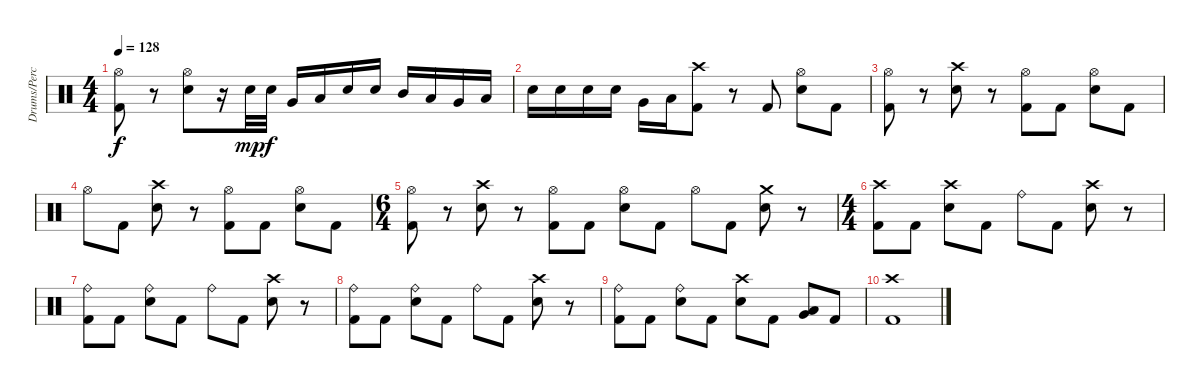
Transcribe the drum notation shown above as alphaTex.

\track ("Drums/Percussion" "Drums/Perc") {instrument percussion}
\staff {score}
\articulation defaults
\ts (4 4)
\tempo 128
\clef neutral
\ks c
("Hi-Hat (open)" "Kick (hit) 2").8{dy f} r.8 ("Hi-Hat (open)" "Electric Snare (hit)").8 r.16 "Electric Snare (hit)".32{dy mp} "Electric Snare (hit)".32{dy f} "Very Low Tom (hit)".16 "Low Floor Tom (hit)".16 "Electric Snare (hit)".16 "Electric Snare (hit)".16 "Mid Tom (hit)".16 "Low Tom (hit)".16 "Very Low Tom (hit)".16 "Low Floor Tom (hit)".16 |
"Electric Snare (hit)".16 "Electric Snare (hit)".16 "Electric Snare (hit)".16 "Electric Snare (hit)".16 "Very Low Tom (hit)".16 "Low Floor Tom (hit)".16 ("Crash high (hit)" "Kick (hit) 2").8 r.8 "Kick (hit) 2".8 ("Hi-Hat (open)" "Electric Snare (hit)").8 "Kick (hit) 2".8 |
("Hi-Hat (open)" "Kick (hit) 2").8 r.8 ("Crash high (hit)" "Electric Snare (hit)").8 r.8 ("Hi-Hat (open)" "Kick (hit) 2").8 "Kick (hit) 2".8 ("Hi-Hat (open)" "Electric Snare (hit)").8 "Kick (hit) 2".8 |
"Hi-Hat (open)".8 "Kick (hit) 2".8 ("Crash high (hit)" "Electric Snare (hit)").8 r.8 ("Hi-Hat (open)" "Kick (hit) 2").8 "Kick (hit) 2".8 ("Hi-Hat (open)" "Electric Snare (hit)").8 "Kick (hit) 2".8 |
\ts (6 4)
("Hi-Hat (open)" "Kick (hit) 2").8 r.8 ("Crash high (hit)" "Electric Snare (hit)").8 r.8 ("Hi-Hat (open)" "Kick (hit) 2").8 "Kick (hit) 2".8 ("Hi-Hat (open)" "Electric Snare (hit)").8 "Kick (hit) 2".8 "Hi-Hat (open)".8 "Kick (hit) 2".8 ("Crash medium (hit)" "Electric Snare (hit)").8 r.8 |
\ts (4 4)
("Crash high (hit)" "Kick (hit) 2").8 "Kick (hit) 2".8 ("Crash high (hit)" "Electric Snare (hit)").8 "Kick (hit) 2".8 "Ride (bell)".8 "Kick (hit) 2".8 ("Crash high (hit)" "Electric Snare (hit)").8 r.8 |
("Ride (bell)" "Kick (hit) 2").8 "Kick (hit) 2".8 ("Ride (bell)" "Electric Snare (hit)").8 "Kick (hit) 2".8 "Ride (bell)".8 "Kick (hit) 2".8 ("Crash high (hit)" "Electric Snare (hit)").8 r.8 |
("Ride (bell)" "Kick (hit) 2").8 "Kick (hit) 2".8 ("Ride (bell)" "Electric Snare (hit)").8 "Kick (hit) 2".8 "Ride (bell)".8 "Kick (hit) 2".8 ("Crash high (hit)" "Electric Snare (hit)").8 r.8 |
("Ride (bell)" "Kick (hit) 2").8 "Kick (hit) 2".8 ("Ride (bell)" "Electric Snare (hit)").8 "Kick (hit) 2".8 ("Crash high (hit)" "Electric Snare (hit)").8 "Kick (hit) 2".8 ("Low Tom (hit)" "Very Low Tom (hit)").8 "Kick (hit) 2".8 |
("Crash high (hit)" "Kick (hit) 2").1
